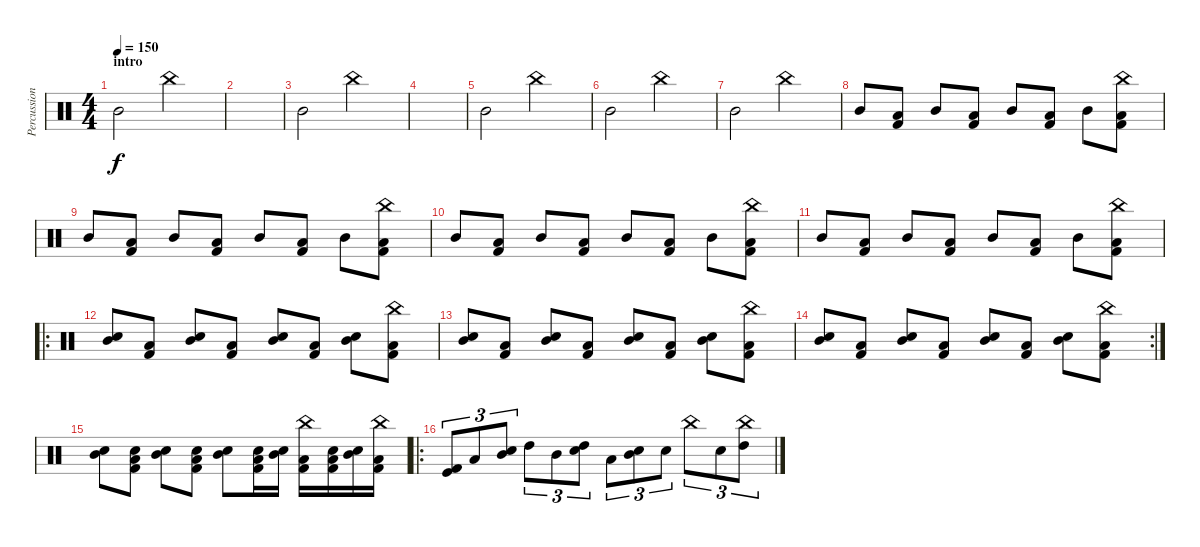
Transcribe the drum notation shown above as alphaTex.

\track ("Percussion" "Percussion") {instrument percussion}
\staff {score}
\articulation defaults
\ts (4 4)
\section ("" "intro")
\tempo 150
\clef neutral
\ks c "Mid Tom (hit)".2{dy f} "China (hit)".2
|
|
"Mid Tom (hit)".2 "China (hit)".2 |
|
"Mid Tom (hit)".2 "China (hit)".2 |
"Mid Tom (hit)".2 "China (hit)".2 |
"Mid Tom (hit)".2 "China (hit)".2 |
"Mid Tom (hit)".8 ("Low Tom (hit)" "Kick (hit) 2").8 "Mid Tom (hit)".8 ("Low Tom (hit)" "Kick (hit) 2").8 "Mid Tom (hit)".8 ("Low Tom (hit)" "Kick (hit) 2").8 "Mid Tom (hit)".8 ("China (hit)" "Low Tom (hit)" "Kick (hit) 2").8 |
"Mid Tom (hit)".8 ("Low Tom (hit)" "Kick (hit) 2").8 "Mid Tom (hit)".8 ("Low Tom (hit)" "Kick (hit) 2").8 "Mid Tom (hit)".8 ("Low Tom (hit)" "Kick (hit) 2").8 "Mid Tom (hit)".8 ("China (hit)" "Low Tom (hit)" "Kick (hit) 2").8 |
"Mid Tom (hit)".8 ("Low Tom (hit)" "Kick (hit) 2").8 "Mid Tom (hit)".8 ("Low Tom (hit)" "Kick (hit) 2").8 "Mid Tom (hit)".8 ("Low Tom (hit)" "Kick (hit) 2").8 "Mid Tom (hit)".8 ("China (hit)" "Low Tom (hit)" "Kick (hit) 2").8 |
"Mid Tom (hit)".8 ("Low Tom (hit)" "Kick (hit) 2").8 "Mid Tom (hit)".8 ("Low Tom (hit)" "Kick (hit) 2").8 "Mid Tom (hit)".8 ("Low Tom (hit)" "Kick (hit) 2").8 "Mid Tom (hit)".8 ("China (hit)" "Low Tom (hit)" "Kick (hit) 2").8 |
\ro
("Snare (hit) 2" "Mid Tom (hit)").8 ("Low Tom (hit)" "Kick (hit) 2").8 ("Snare (hit) 2" "Mid Tom (hit)").8 ("Low Tom (hit)" "Kick (hit) 2").8 ("Snare (hit) 2" "Mid Tom (hit)").8 ("Low Tom (hit)" "Kick (hit) 2").8 ("Snare (hit) 2" "Mid Tom (hit)").8 ("China (hit)" "Low Tom (hit)" "Kick (hit) 2").8 |
("Snare (hit) 2" "Mid Tom (hit)").8 ("Low Tom (hit)" "Kick (hit) 2").8 ("Snare (hit) 2" "Mid Tom (hit)").8 ("Low Tom (hit)" "Kick (hit) 2").8 ("Snare (hit) 2" "Mid Tom (hit)").8 ("Low Tom (hit)" "Kick (hit) 2").8 ("Snare (hit) 2" "Mid Tom (hit)").8 ("China (hit)" "Low Tom (hit)" "Kick (hit) 2").8 |
\rc 2
("Snare (hit) 2" "Mid Tom (hit)").8 ("Low Tom (hit)" "Kick (hit) 2").8 ("Snare (hit) 2" "Mid Tom (hit)").8 ("Low Tom (hit)" "Kick (hit) 2").8 ("Snare (hit) 2" "Mid Tom (hit)").8 ("Low Tom (hit)" "Kick (hit) 2").8 ("Snare (hit) 2" "Mid Tom (hit)").8 ("China (hit)" "Low Tom (hit)" "Kick (hit) 2").8 |
("Snare (hit) 2" "Mid Tom (hit)").8 ("Snare (hit) 2" "Low Tom (hit)" "Kick (hit) 2").8 ("Snare (hit) 2" "Mid Tom (hit)").8 ("Snare (hit) 2" "Low Tom (hit)" "Kick (hit) 2").8 ("Snare (hit) 2" "Mid Tom (hit)").8 ("Snare (hit) 2" "Low Tom (hit)" "Kick (hit) 2").16 ("Snare (hit) 2" "Mid Tom (hit)").16 ("China (hit)" "Low Tom (hit)" "Kick (hit) 2").16 ("Snare (hit) 2" "Low Tom (hit)" "Kick (hit) 2").16 ("Snare (hit) 2" "Mid Tom (hit)").16 ("China (hit)" "Low Tom (hit)" "Kick (hit) 2").16 |
\ro
("Kick (hit) 2" "Kick (hit)").8{tu (3 2)} "Low Tom (hit)".8{tu (3 2)} ("Mid Tom (hit)" "Snare (hit) 2").8{tu (3 2)} "High Tom (hit)".8{tu (3 2)} "Mid Tom (hit)".8{tu (3 2)} ("High Tom (hit)" "Snare (hit) 2").8{tu (3 2)} "Low Tom (hit)".8{tu (3 2)} ("Mid Tom (hit)" "Snare (hit) 2").8{tu (3 2)} "Snare (hit) 2".8{tu (3 2)} "China (hit)".8{tu (3 2)} "Snare (hit) 2".8{tu (3 2)} ("High Tom (hit)" "China (hit)").8{tu (3 2)}
